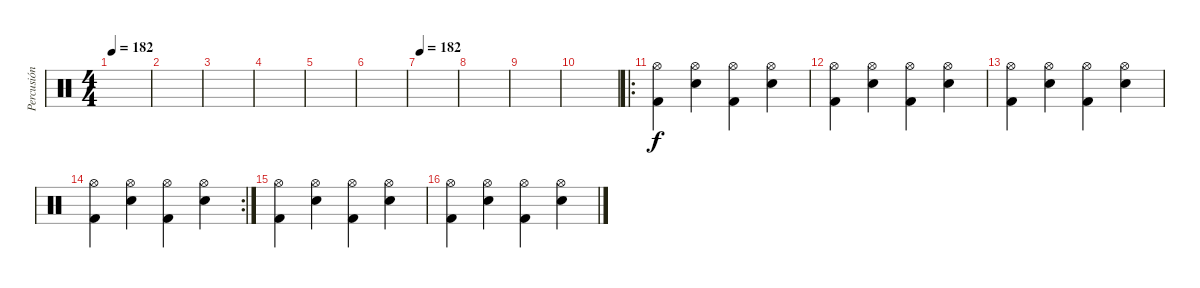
\track ("Percusión" "Percusión") {instrument percussion}
\staff {score}
\articulation defaults
\ts (4 4)
\tempo 182
\clef neutral
\ks c
|
|
|
|
|
|
\tempo 182
|
|
|
|
\ro
("Kick (hit) 2" "Hi-Hat (open)").4 ("Electric Snare (hit)" "Hi-Hat (open)").4 ("Kick (hit) 2" "Hi-Hat (open)").4 ("Electric Snare (hit)" "Hi-Hat (open)").4 |
("Kick (hit) 2" "Hi-Hat (open)").4 ("Electric Snare (hit)" "Hi-Hat (open)").4 ("Kick (hit) 2" "Hi-Hat (open)").4 ("Electric Snare (hit)" "Hi-Hat (open)").4 |
("Kick (hit) 2" "Hi-Hat (open)").4 ("Electric Snare (hit)" "Hi-Hat (open)").4 ("Kick (hit) 2" "Hi-Hat (open)").4 ("Electric Snare (hit)" "Hi-Hat (open)").4 |
\rc 2
("Kick (hit) 2" "Hi-Hat (open)").4 ("Electric Snare (hit)" "Hi-Hat (open)").4 ("Kick (hit) 2" "Hi-Hat (open)").4 ("Electric Snare (hit)" "Hi-Hat (open)").4 |
("Kick (hit) 2" "Hi-Hat (open)").4 ("Electric Snare (hit)" "Hi-Hat (open)").4 ("Kick (hit) 2" "Hi-Hat (open)").4 ("Electric Snare (hit)" "Hi-Hat (open)").4 |
("Kick (hit) 2" "Hi-Hat (open)").4 ("Electric Snare (hit)" "Hi-Hat (open)").4 ("Kick (hit) 2" "Hi-Hat (open)").4 ("Electric Snare (hit)" "Hi-Hat (open)").4
